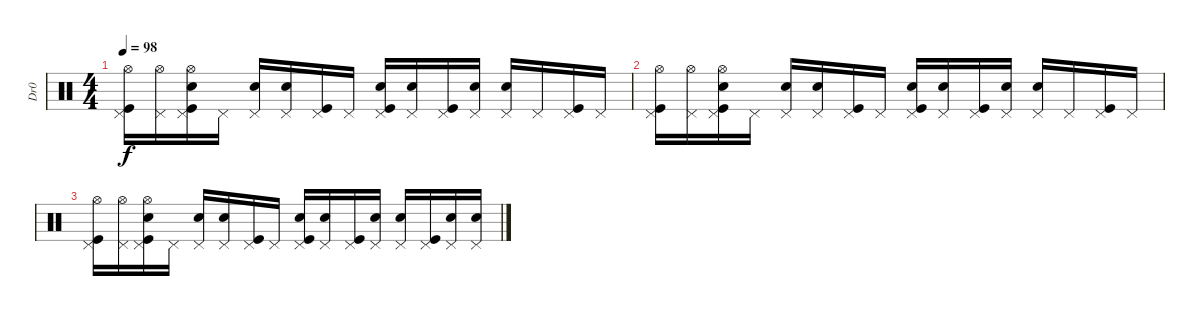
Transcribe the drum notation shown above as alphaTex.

\track ("Dr0" "Dr0") {instrument percussion}
\staff {score}
\articulation defaults
\ts (4 4)
\tempo 98
\clef neutral
\ks c
("Kick (hit)" "Pedal Hi-Hat (hit)" "Hi-Hat (open)").16{dy f} ("Pedal Hi-Hat (hit)" "Hi-Hat (open)").16 ("Kick (hit)" "Pedal Hi-Hat (hit)" "Hand Clap (hit)" "Hi-Hat (open)").16 "Pedal Hi-Hat (hit)".16 ("Pedal Hi-Hat (hit)" "Snare (hit) 2").16 ("Pedal Hi-Hat (hit)" "Hand Clap (hit)").16 ("Kick (hit)" "Pedal Hi-Hat (hit)").16 "Pedal Hi-Hat (hit)".16 ("Kick (hit)" "Pedal Hi-Hat (hit)" "Hand Clap (hit)").16 ("Pedal Hi-Hat (hit)" "Snare (hit) 2").16 ("Kick (hit)" "Pedal Hi-Hat (hit)").16 ("Pedal Hi-Hat (hit)" "Hand Clap (hit)").16 ("Pedal Hi-Hat (hit)" "Snare (hit) 2").16 "Pedal Hi-Hat (hit)".16 ("Kick (hit)" "Pedal Hi-Hat (hit)").16 "Pedal Hi-Hat (hit)".16 |
("Kick (hit)" "Pedal Hi-Hat (hit)" "Hi-Hat (open)").16 ("Pedal Hi-Hat (hit)" "Hi-Hat (open)").16 ("Kick (hit)" "Pedal Hi-Hat (hit)" "Hand Clap (hit)" "Hi-Hat (open)").16 "Pedal Hi-Hat (hit)".16 ("Pedal Hi-Hat (hit)" "Snare (hit) 2").16 ("Pedal Hi-Hat (hit)" "Hand Clap (hit)").16 ("Kick (hit)" "Pedal Hi-Hat (hit)").16 "Pedal Hi-Hat (hit)".16 ("Kick (hit)" "Pedal Hi-Hat (hit)" "Hand Clap (hit)").16 ("Pedal Hi-Hat (hit)" "Snare (hit) 2").16 ("Kick (hit)" "Pedal Hi-Hat (hit)").16 ("Pedal Hi-Hat (hit)" "Hand Clap (hit)").16 ("Pedal Hi-Hat (hit)" "Snare (hit) 2").16 "Pedal Hi-Hat (hit)".16 ("Kick (hit)" "Pedal Hi-Hat (hit)").16 "Pedal Hi-Hat (hit)".16 |
("Kick (hit)" "Pedal Hi-Hat (hit)" "Hi-Hat (open)").16 ("Pedal Hi-Hat (hit)" "Hi-Hat (open)").16 ("Kick (hit)" "Pedal Hi-Hat (hit)" "Hand Clap (hit)" "Hi-Hat (open)").16 "Pedal Hi-Hat (hit)".16 ("Pedal Hi-Hat (hit)" "Snare (hit) 2").16 ("Pedal Hi-Hat (hit)" "Hand Clap (hit)").16 ("Kick (hit)" "Pedal Hi-Hat (hit)").16 "Pedal Hi-Hat (hit)".16 ("Kick (hit)" "Pedal Hi-Hat (hit)" "Hand Clap (hit)").16 ("Pedal Hi-Hat (hit)" "Snare (hit) 2").16 ("Kick (hit)" "Pedal Hi-Hat (hit)").16 ("Pedal Hi-Hat (hit)" "Hand Clap (hit)").16 ("Pedal Hi-Hat (hit)" "Snare (hit) 2").16 ("Kick (hit)" "Pedal Hi-Hat (hit)").16 ("Pedal Hi-Hat (hit)" "Snare (hit) 2").16 ("Pedal Hi-Hat (hit)" "Snare (hit) 2").16
